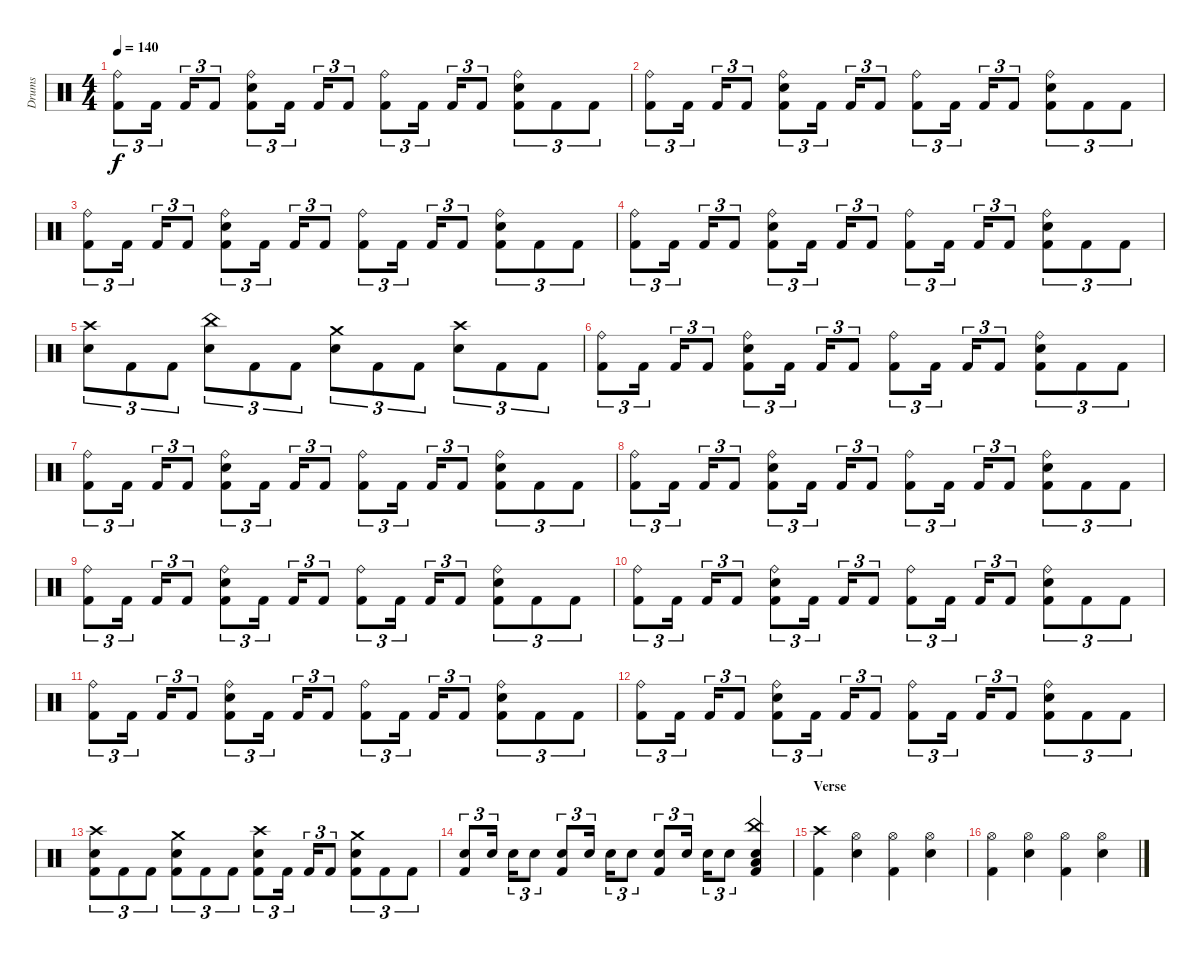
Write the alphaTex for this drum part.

\track ("Drums" "Drums") {instrument percussion}
\staff {score}
\articulation defaults
\ts (4 4)
\tempo 140
\clef neutral
\ks c
("Ride (bell)" "Kick (hit) 2").8{tu (3 2) dy f} "Kick (hit) 2".16{tu (3 2)} "Kick (hit) 2".16{tu (3 2)} "Kick (hit) 2".8{tu (3 2)} ("Ride (bell)" "Electric Snare (hit)" "Kick (hit) 2").8{tu (3 2)} "Kick (hit) 2".16{tu (3 2)} "Kick (hit) 2".16{tu (3 2)} "Kick (hit) 2".8{tu (3 2)} ("Ride (bell)" "Kick (hit) 2").8{tu (3 2)} "Kick (hit) 2".16{tu (3 2)} "Kick (hit) 2".16{tu (3 2)} "Kick (hit) 2".8{tu (3 2)} ("Ride (bell)" "Electric Snare (hit)" "Kick (hit) 2").8{tu (3 2)} "Kick (hit) 2".8{tu (3 2)} "Kick (hit) 2".8{tu (3 2)} |
("Ride (bell)" "Kick (hit) 2").8{tu (3 2)} "Kick (hit) 2".16{tu (3 2)} "Kick (hit) 2".16{tu (3 2)} "Kick (hit) 2".8{tu (3 2)} ("Ride (bell)" "Electric Snare (hit)" "Kick (hit) 2").8{tu (3 2)} "Kick (hit) 2".16{tu (3 2)} "Kick (hit) 2".16{tu (3 2)} "Kick (hit) 2".8{tu (3 2)} ("Ride (bell)" "Kick (hit) 2").8{tu (3 2)} "Kick (hit) 2".16{tu (3 2)} "Kick (hit) 2".16{tu (3 2)} "Kick (hit) 2".8{tu (3 2)} ("Ride (bell)" "Electric Snare (hit)" "Kick (hit) 2").8{tu (3 2)} "Kick (hit) 2".8{tu (3 2)} "Kick (hit) 2".8{tu (3 2)} |
("Ride (bell)" "Kick (hit) 2").8{tu (3 2)} "Kick (hit) 2".16{tu (3 2)} "Kick (hit) 2".16{tu (3 2)} "Kick (hit) 2".8{tu (3 2)} ("Ride (bell)" "Electric Snare (hit)" "Kick (hit) 2").8{tu (3 2)} "Kick (hit) 2".16{tu (3 2)} "Kick (hit) 2".16{tu (3 2)} "Kick (hit) 2".8{tu (3 2)} ("Ride (bell)" "Kick (hit) 2").8{tu (3 2)} "Kick (hit) 2".16{tu (3 2)} "Kick (hit) 2".16{tu (3 2)} "Kick (hit) 2".8{tu (3 2)} ("Ride (bell)" "Electric Snare (hit)" "Kick (hit) 2").8{tu (3 2)} "Kick (hit) 2".8{tu (3 2)} "Kick (hit) 2".8{tu (3 2)} |
("Ride (bell)" "Kick (hit) 2").8{tu (3 2)} "Kick (hit) 2".16{tu (3 2)} "Kick (hit) 2".16{tu (3 2)} "Kick (hit) 2".8{tu (3 2)} ("Ride (bell)" "Electric Snare (hit)" "Kick (hit) 2").8{tu (3 2)} "Kick (hit) 2".16{tu (3 2)} "Kick (hit) 2".16{tu (3 2)} "Kick (hit) 2".8{tu (3 2)} ("Ride (bell)" "Kick (hit) 2").8{tu (3 2)} "Kick (hit) 2".16{tu (3 2)} "Kick (hit) 2".16{tu (3 2)} "Kick (hit) 2".8{tu (3 2)} ("Ride (bell)" "Electric Snare (hit)" "Kick (hit) 2").8{tu (3 2)} "Kick (hit) 2".8{tu (3 2)} "Kick (hit) 2".8{tu (3 2)} |
("Crash high (hit)" "Electric Snare (hit)").8{tu (3 2)} "Kick (hit) 2".8{tu (3 2)} "Kick (hit) 2".8{tu (3 2)} ("China (hit)" "Electric Snare (hit)").8{tu (3 2)} "Kick (hit) 2".8{tu (3 2)} "Kick (hit) 2".8{tu (3 2)} ("Crash medium (hit)" "Electric Snare (hit)").8{tu (3 2)} "Kick (hit) 2".8{tu (3 2)} "Kick (hit) 2".8{tu (3 2)} ("Crash high (hit)" "Electric Snare (hit)").8{tu (3 2)} "Kick (hit) 2".8{tu (3 2)} "Kick (hit) 2".8{tu (3 2)} |
("Ride (bell)" "Kick (hit) 2").8{tu (3 2)} "Kick (hit) 2".16{tu (3 2)} "Kick (hit) 2".16{tu (3 2)} "Kick (hit) 2".8{tu (3 2)} ("Ride (bell)" "Electric Snare (hit)" "Kick (hit) 2").8{tu (3 2)} "Kick (hit) 2".16{tu (3 2)} "Kick (hit) 2".16{tu (3 2)} "Kick (hit) 2".8{tu (3 2)} ("Ride (bell)" "Kick (hit) 2").8{tu (3 2)} "Kick (hit) 2".16{tu (3 2)} "Kick (hit) 2".16{tu (3 2)} "Kick (hit) 2".8{tu (3 2)} ("Ride (bell)" "Electric Snare (hit)" "Kick (hit) 2").8{tu (3 2)} "Kick (hit) 2".8{tu (3 2)} "Kick (hit) 2".8{tu (3 2)} |
("Ride (bell)" "Kick (hit) 2").8{tu (3 2)} "Kick (hit) 2".16{tu (3 2)} "Kick (hit) 2".16{tu (3 2)} "Kick (hit) 2".8{tu (3 2)} ("Ride (bell)" "Electric Snare (hit)" "Kick (hit) 2").8{tu (3 2)} "Kick (hit) 2".16{tu (3 2)} "Kick (hit) 2".16{tu (3 2)} "Kick (hit) 2".8{tu (3 2)} ("Ride (bell)" "Kick (hit) 2").8{tu (3 2)} "Kick (hit) 2".16{tu (3 2)} "Kick (hit) 2".16{tu (3 2)} "Kick (hit) 2".8{tu (3 2)} ("Ride (bell)" "Electric Snare (hit)" "Kick (hit) 2").8{tu (3 2)} "Kick (hit) 2".8{tu (3 2)} "Kick (hit) 2".8{tu (3 2)} |
("Ride (bell)" "Kick (hit) 2").8{tu (3 2)} "Kick (hit) 2".16{tu (3 2)} "Kick (hit) 2".16{tu (3 2)} "Kick (hit) 2".8{tu (3 2)} ("Ride (bell)" "Electric Snare (hit)" "Kick (hit) 2").8{tu (3 2)} "Kick (hit) 2".16{tu (3 2)} "Kick (hit) 2".16{tu (3 2)} "Kick (hit) 2".8{tu (3 2)} ("Ride (bell)" "Kick (hit) 2").8{tu (3 2)} "Kick (hit) 2".16{tu (3 2)} "Kick (hit) 2".16{tu (3 2)} "Kick (hit) 2".8{tu (3 2)} ("Ride (bell)" "Electric Snare (hit)" "Kick (hit) 2").8{tu (3 2)} "Kick (hit) 2".8{tu (3 2)} "Kick (hit) 2".8{tu (3 2)} |
("Ride (bell)" "Kick (hit) 2").8{tu (3 2)} "Kick (hit) 2".16{tu (3 2)} "Kick (hit) 2".16{tu (3 2)} "Kick (hit) 2".8{tu (3 2)} ("Ride (bell)" "Electric Snare (hit)" "Kick (hit) 2").8{tu (3 2)} "Kick (hit) 2".16{tu (3 2)} "Kick (hit) 2".16{tu (3 2)} "Kick (hit) 2".8{tu (3 2)} ("Ride (bell)" "Kick (hit) 2").8{tu (3 2)} "Kick (hit) 2".16{tu (3 2)} "Kick (hit) 2".16{tu (3 2)} "Kick (hit) 2".8{tu (3 2)} ("Ride (bell)" "Electric Snare (hit)" "Kick (hit) 2").8{tu (3 2)} "Kick (hit) 2".8{tu (3 2)} "Kick (hit) 2".8{tu (3 2)} |
("Ride (bell)" "Kick (hit) 2").8{tu (3 2)} "Kick (hit) 2".16{tu (3 2)} "Kick (hit) 2".16{tu (3 2)} "Kick (hit) 2".8{tu (3 2)} ("Ride (bell)" "Electric Snare (hit)" "Kick (hit) 2").8{tu (3 2)} "Kick (hit) 2".16{tu (3 2)} "Kick (hit) 2".16{tu (3 2)} "Kick (hit) 2".8{tu (3 2)} ("Ride (bell)" "Kick (hit) 2").8{tu (3 2)} "Kick (hit) 2".16{tu (3 2)} "Kick (hit) 2".16{tu (3 2)} "Kick (hit) 2".8{tu (3 2)} ("Ride (bell)" "Electric Snare (hit)" "Kick (hit) 2").8{tu (3 2)} "Kick (hit) 2".8{tu (3 2)} "Kick (hit) 2".8{tu (3 2)} |
("Ride (bell)" "Kick (hit) 2").8{tu (3 2)} "Kick (hit) 2".16{tu (3 2)} "Kick (hit) 2".16{tu (3 2)} "Kick (hit) 2".8{tu (3 2)} ("Ride (bell)" "Electric Snare (hit)" "Kick (hit) 2").8{tu (3 2)} "Kick (hit) 2".16{tu (3 2)} "Kick (hit) 2".16{tu (3 2)} "Kick (hit) 2".8{tu (3 2)} ("Ride (bell)" "Kick (hit) 2").8{tu (3 2)} "Kick (hit) 2".16{tu (3 2)} "Kick (hit) 2".16{tu (3 2)} "Kick (hit) 2".8{tu (3 2)} ("Ride (bell)" "Electric Snare (hit)" "Kick (hit) 2").8{tu (3 2)} "Kick (hit) 2".8{tu (3 2)} "Kick (hit) 2".8{tu (3 2)} |
("Ride (bell)" "Kick (hit) 2").8{tu (3 2)} "Kick (hit) 2".16{tu (3 2)} "Kick (hit) 2".16{tu (3 2)} "Kick (hit) 2".8{tu (3 2)} ("Ride (bell)" "Electric Snare (hit)" "Kick (hit) 2").8{tu (3 2)} "Kick (hit) 2".16{tu (3 2)} "Kick (hit) 2".16{tu (3 2)} "Kick (hit) 2".8{tu (3 2)} ("Ride (bell)" "Kick (hit) 2").8{tu (3 2)} "Kick (hit) 2".16{tu (3 2)} "Kick (hit) 2".16{tu (3 2)} "Kick (hit) 2".8{tu (3 2)} ("Ride (bell)" "Electric Snare (hit)" "Kick (hit) 2").8{tu (3 2)} "Kick (hit) 2".8{tu (3 2)} "Kick (hit) 2".8{tu (3 2)} |
("Crash high (hit)" "Electric Snare (hit)" "Kick (hit) 2").8{tu (3 2)} "Kick (hit) 2".8{tu (3 2)} "Kick (hit) 2".8{tu (3 2)} ("Crash medium (hit)" "Electric Snare (hit)" "Kick (hit) 2").8{tu (3 2)} "Kick (hit) 2".8{tu (3 2)} "Kick (hit) 2".8{tu (3 2)} ("Crash high (hit)" "Electric Snare (hit)" "Kick (hit) 2").8{tu (3 2)} "Kick (hit) 2".16{tu (3 2)} "Kick (hit) 2".16{tu (3 2)} "Kick (hit) 2".8{tu (3 2)} ("Crash medium (hit)" "Electric Snare (hit)" "Kick (hit) 2").8{tu (3 2)} "Kick (hit) 2".8{tu (3 2)} "Kick (hit) 2".8{tu (3 2)} |
("Electric Snare (hit)" "Kick (hit) 2").8{tu (3 2)} "Electric Snare (hit)".16{tu (3 2)} "Electric Snare (hit)".16{tu (3 2)} "Electric Snare (hit)".8{tu (3 2)} ("Electric Snare (hit)" "Kick (hit) 2").8{tu (3 2)} "Electric Snare (hit)".16{tu (3 2)} "Electric Snare (hit)".16{tu (3 2)} "Electric Snare (hit)".8{tu (3 2)} ("Electric Snare (hit)" "Kick (hit) 2").8{tu (3 2)} "Electric Snare (hit)".16{tu (3 2)} "Electric Snare (hit)".16{tu (3 2)} "Electric Snare (hit)".8{tu (3 2)} ("China (hit)" "Electric Snare (hit)" "Low Floor Tom (hit)" "Kick (hit) 2").4 |
\section ("" "Verse")
("Crash high (hit)" "Kick (hit) 2").4 ("Hi-Hat (open)" "Electric Snare (hit)").4 ("Hi-Hat (open)" "Kick (hit) 2").4 ("Hi-Hat (open)" "Electric Snare (hit)").4 |
("Hi-Hat (open)" "Kick (hit) 2").4 ("Hi-Hat (open)" "Electric Snare (hit)").4 ("Hi-Hat (open)" "Kick (hit) 2").4 ("Hi-Hat (open)" "Electric Snare (hit)").4
